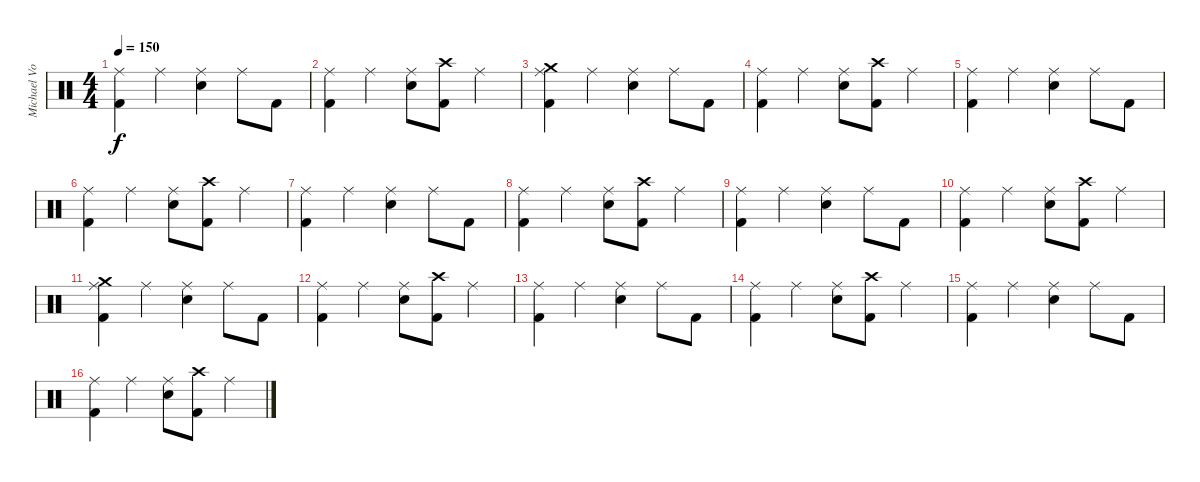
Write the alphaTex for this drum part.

\track ("Michael Von Knorring" "Michael Vo") {instrument percussion}
\staff {score}
\articulation defaults
\ts (4 4)
\tempo 150
\clef neutral
\ks c
("Ride (middle)" "Kick (hit) 2").4{dy f} "Ride (middle)".4 ("Ride (middle)" "Snare (hit) 2").4 "Ride (middle)".8 "Kick (hit) 2".8 |
("Ride (middle)" "Kick (hit) 2").4 "Ride (middle)".4 ("Ride (middle)" "Snare (hit) 2").8 ("Crash high (hit)" "Kick (hit) 2").8 "Ride (middle)".4 |
("Crash medium (hit)" "Ride (middle)" "Kick (hit) 2").4 "Ride (middle)".4 ("Ride (middle)" "Snare (hit) 2").4 "Ride (middle)".8 "Kick (hit) 2".8 |
("Ride (middle)" "Kick (hit) 2").4 "Ride (middle)".4 ("Ride (middle)" "Snare (hit) 2").8 ("Crash high (hit)" "Kick (hit) 2").8 "Ride (middle)".4 |
("Ride (middle)" "Kick (hit) 2").4 "Ride (middle)".4 ("Ride (middle)" "Snare (hit) 2").4 "Ride (middle)".8 "Kick (hit) 2".8 |
("Ride (middle)" "Kick (hit) 2").4 "Ride (middle)".4 ("Ride (middle)" "Snare (hit) 2").8 ("Crash high (hit)" "Kick (hit) 2").8 "Ride (middle)".4 |
("Ride (middle)" "Kick (hit) 2").4 "Ride (middle)".4 ("Ride (middle)" "Snare (hit) 2").4 "Ride (middle)".8 "Kick (hit) 2".8 |
("Ride (middle)" "Kick (hit) 2").4 "Ride (middle)".4 ("Ride (middle)" "Snare (hit) 2").8 ("Crash high (hit)" "Kick (hit) 2").8 "Ride (middle)".4 |
("Ride (middle)" "Kick (hit) 2").4 "Ride (middle)".4 ("Ride (middle)" "Snare (hit) 2").4 "Ride (middle)".8 "Kick (hit) 2".8 |
("Ride (middle)" "Kick (hit) 2").4 "Ride (middle)".4 ("Ride (middle)" "Snare (hit) 2").8 ("Crash high (hit)" "Kick (hit) 2").8 "Ride (middle)".4 |
("Crash medium (hit)" "Ride (middle)" "Kick (hit) 2").4 "Ride (middle)".4 ("Ride (middle)" "Snare (hit) 2").4 "Ride (middle)".8 "Kick (hit) 2".8 |
("Ride (middle)" "Kick (hit) 2").4 "Ride (middle)".4 ("Ride (middle)" "Snare (hit) 2").8 ("Crash high (hit)" "Kick (hit) 2").8 "Ride (middle)".4 |
("Ride (middle)" "Kick (hit) 2").4 "Ride (middle)".4 ("Ride (middle)" "Snare (hit) 2").4 "Ride (middle)".8 "Kick (hit) 2".8 |
("Ride (middle)" "Kick (hit) 2").4 "Ride (middle)".4 ("Ride (middle)" "Snare (hit) 2").8 ("Crash high (hit)" "Kick (hit) 2").8 "Ride (middle)".4 |
("Ride (middle)" "Kick (hit) 2").4 "Ride (middle)".4 ("Ride (middle)" "Snare (hit) 2").4 "Ride (middle)".8 "Kick (hit) 2".8 |
("Ride (middle)" "Kick (hit) 2").4 "Ride (middle)".4 ("Ride (middle)" "Snare (hit) 2").8 ("Crash high (hit)" "Kick (hit) 2").8 "Ride (middle)".4
